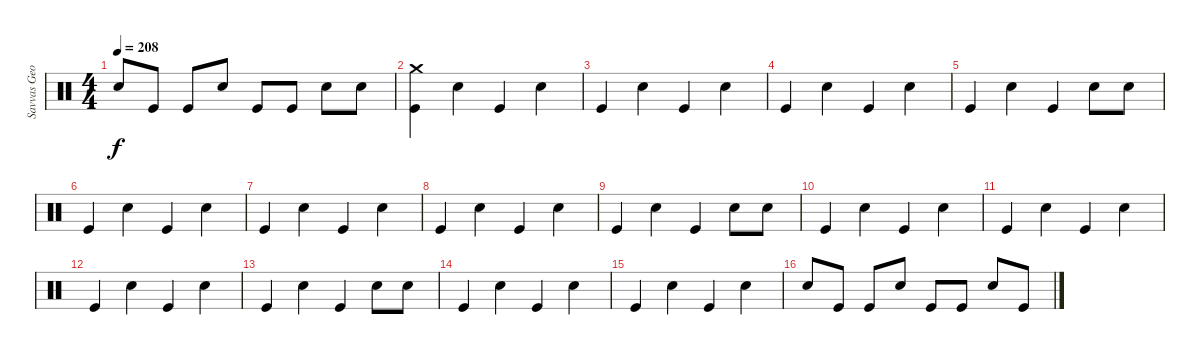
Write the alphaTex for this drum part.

\track ("Savvas Georgiadis" "Savvas Geo") {instrument percussion}
\staff {score}
\articulation defaults
\ts (4 4)
\tempo 208
\clef neutral
\ks c "Snare (hit) 2".8{dy f} "Kick (hit)".8 "Kick (hit)".8 "Snare (hit) 2".8 "Kick (hit)".8 "Kick (hit)".8 "Snare (hit) 2".8 "Snare (hit) 2".8
|
("Crash medium (hit)" "Kick (hit)").4 "Snare (hit) 2".4 "Kick (hit)".4 "Snare (hit) 2".4 |
"Kick (hit)".4 "Snare (hit) 2".4 "Kick (hit)".4 "Snare (hit) 2".4 |
"Kick (hit)".4 "Snare (hit) 2".4 "Kick (hit)".4 "Snare (hit) 2".4 |
"Kick (hit)".4 "Snare (hit) 2".4 "Kick (hit)".4 "Snare (hit) 2".8 "Snare (hit) 2".8 |
"Kick (hit)".4 "Snare (hit) 2".4 "Kick (hit)".4 "Snare (hit) 2".4 |
"Kick (hit)".4 "Snare (hit) 2".4 "Kick (hit)".4 "Snare (hit) 2".4 |
"Kick (hit)".4 "Snare (hit) 2".4 "Kick (hit)".4 "Snare (hit) 2".4 |
"Kick (hit)".4 "Snare (hit) 2".4 "Kick (hit)".4 "Snare (hit) 2".8 "Snare (hit) 2".8 |
"Kick (hit)".4 "Snare (hit) 2".4 "Kick (hit)".4 "Snare (hit) 2".4 |
"Kick (hit)".4 "Snare (hit) 2".4 "Kick (hit)".4 "Snare (hit) 2".4 |
"Kick (hit)".4 "Snare (hit) 2".4 "Kick (hit)".4 "Snare (hit) 2".4 |
"Kick (hit)".4 "Snare (hit) 2".4 "Kick (hit)".4 "Snare (hit) 2".8 "Snare (hit) 2".8 |
"Kick (hit)".4 "Snare (hit) 2".4 "Kick (hit)".4 "Snare (hit) 2".4 |
"Kick (hit)".4 "Snare (hit) 2".4 "Kick (hit)".4 "Snare (hit) 2".4 |
"Snare (hit) 2".8 "Kick (hit)".8 "Kick (hit)".8 "Snare (hit) 2".8 "Kick (hit)".8 "Kick (hit)".8 "Snare (hit) 2".8 "Kick (hit)".8
